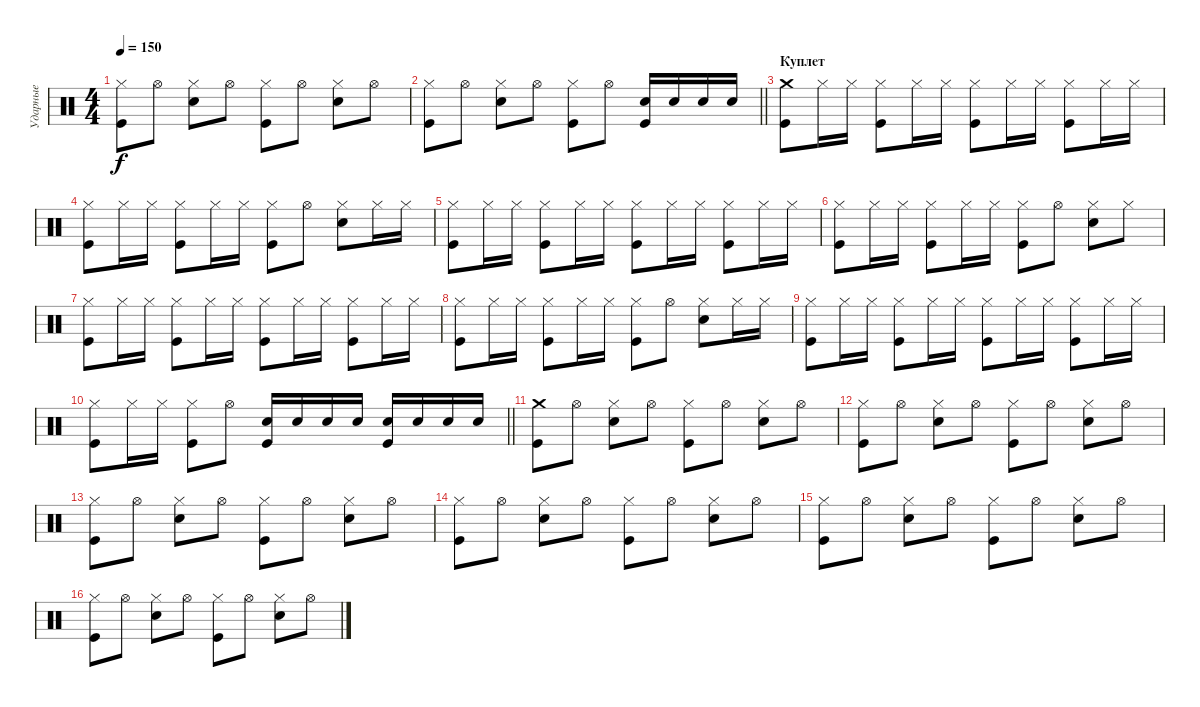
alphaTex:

\track ("Ударные" "Ударные") {instrument percussion}
\staff {score}
\articulation defaults
\ts (4 4)
\tempo 150
\clef neutral
\ks c
("Hi-Hat (closed)" "Kick (hit)").8{dy f} "Hi-Hat (open)".8 ("Hi-Hat (closed)" "Electric Snare (hit)").8 "Hi-Hat (open)".8 ("Hi-Hat (closed)" "Kick (hit)").8 "Hi-Hat (open)".8 ("Hi-Hat (closed)" "Electric Snare (hit)").8 "Hi-Hat (open)".8 |
\barLineRight lightlight
("Hi-Hat (closed)" "Kick (hit)").8 "Hi-Hat (open)".8 ("Hi-Hat (closed)" "Electric Snare (hit)").8 "Hi-Hat (open)".8 ("Hi-Hat (closed)" "Kick (hit)").8 "Hi-Hat (open)".8 ("Electric Snare (hit)" "Kick (hit)").16 "Electric Snare (hit)".16 "Electric Snare (hit)".16 "Electric Snare (hit)".16 |
\section ("" "Куплет")
("Crash medium (hit)" "Kick (hit)").8 "Hi-Hat (closed)".16 "Hi-Hat (closed)".16 ("Hi-Hat (closed)" "Kick (hit)").8 "Hi-Hat (closed)".16 "Hi-Hat (closed)".16 ("Hi-Hat (closed)" "Kick (hit)").8 "Hi-Hat (closed)".16 "Hi-Hat (closed)".16 ("Hi-Hat (closed)" "Kick (hit)").8 "Hi-Hat (closed)".16 "Hi-Hat (closed)".16 |
("Hi-Hat (closed)" "Kick (hit)").8 "Hi-Hat (closed)".16 "Hi-Hat (closed)".16 ("Hi-Hat (closed)" "Kick (hit)").8 "Hi-Hat (closed)".16 "Hi-Hat (closed)".16 ("Hi-Hat (closed)" "Kick (hit)").8 "Hi-Hat (open)".8 ("Hi-Hat (closed)" "Electric Snare (hit)").8 "Hi-Hat (closed)".16 "Hi-Hat (closed)".16 |
("Hi-Hat (closed)" "Kick (hit)").8 "Hi-Hat (closed)".16 "Hi-Hat (closed)".16 ("Hi-Hat (closed)" "Kick (hit)").8 "Hi-Hat (closed)".16 "Hi-Hat (closed)".16 ("Hi-Hat (closed)" "Kick (hit)").8 "Hi-Hat (closed)".16 "Hi-Hat (closed)".16 ("Hi-Hat (closed)" "Kick (hit)").8 "Hi-Hat (closed)".16 "Hi-Hat (closed)".16 |
("Hi-Hat (closed)" "Kick (hit)").8 "Hi-Hat (closed)".16 "Hi-Hat (closed)".16 ("Hi-Hat (closed)" "Kick (hit)").8 "Hi-Hat (closed)".16 "Hi-Hat (closed)".16 ("Hi-Hat (closed)" "Kick (hit)").8 "Hi-Hat (open)".8 ("Hi-Hat (closed)" "Electric Snare (hit)").8 "Hi-Hat (closed)".8 |
("Hi-Hat (closed)" "Kick (hit)").8 "Hi-Hat (closed)".16 "Hi-Hat (closed)".16 ("Hi-Hat (closed)" "Kick (hit)").8 "Hi-Hat (closed)".16 "Hi-Hat (closed)".16 ("Hi-Hat (closed)" "Kick (hit)").8 "Hi-Hat (closed)".16 "Hi-Hat (closed)".16 ("Hi-Hat (closed)" "Kick (hit)").8 "Hi-Hat (closed)".16 "Hi-Hat (closed)".16 |
("Hi-Hat (closed)" "Kick (hit)").8 "Hi-Hat (closed)".16 "Hi-Hat (closed)".16 ("Hi-Hat (closed)" "Kick (hit)").8 "Hi-Hat (closed)".16 "Hi-Hat (closed)".16 ("Hi-Hat (closed)" "Kick (hit)").8 "Hi-Hat (open)".8 ("Hi-Hat (closed)" "Electric Snare (hit)").8 "Hi-Hat (closed)".16 "Hi-Hat (closed)".16 |
("Hi-Hat (closed)" "Kick (hit)").8 "Hi-Hat (closed)".16 "Hi-Hat (closed)".16 ("Hi-Hat (closed)" "Kick (hit)").8 "Hi-Hat (closed)".16 "Hi-Hat (closed)".16 ("Hi-Hat (closed)" "Kick (hit)").8 "Hi-Hat (closed)".16 "Hi-Hat (closed)".16 ("Hi-Hat (closed)" "Kick (hit)").8 "Hi-Hat (closed)".16 "Hi-Hat (closed)".16 |
\barLineRight lightlight
("Hi-Hat (closed)" "Kick (hit)").8 "Hi-Hat (closed)".16 "Hi-Hat (closed)".16 ("Hi-Hat (closed)" "Kick (hit)").8 "Hi-Hat (open)".8 ("Electric Snare (hit)" "Kick (hit)").16 "Electric Snare (hit)".16 "Electric Snare (hit)".16 "Electric Snare (hit)".16 ("Electric Snare (hit)" "Kick (hit)").16 "Electric Snare (hit)".16 "Electric Snare (hit)".16 "Electric Snare (hit)".16 |
\section ("" " ")
("Crash medium (hit)" "Kick (hit)").8 "Hi-Hat (open)".8 ("Hi-Hat (closed)" "Electric Snare (hit)").8 "Hi-Hat (open)".8 ("Hi-Hat (closed)" "Kick (hit)").8 "Hi-Hat (open)".8 ("Hi-Hat (closed)" "Electric Snare (hit)").8 "Hi-Hat (open)".8 |
("Hi-Hat (closed)" "Kick (hit)").8 "Hi-Hat (open)".8 ("Hi-Hat (closed)" "Electric Snare (hit)").8 "Hi-Hat (open)".8 ("Hi-Hat (closed)" "Kick (hit)").8 "Hi-Hat (open)".8 ("Hi-Hat (closed)" "Electric Snare (hit)").8 "Hi-Hat (open)".8 |
("Hi-Hat (closed)" "Kick (hit)").8 "Hi-Hat (open)".8 ("Hi-Hat (closed)" "Electric Snare (hit)").8 "Hi-Hat (open)".8 ("Hi-Hat (closed)" "Kick (hit)").8 "Hi-Hat (open)".8 ("Hi-Hat (closed)" "Electric Snare (hit)").8 "Hi-Hat (open)".8 |
("Hi-Hat (closed)" "Kick (hit)").8 "Hi-Hat (open)".8 ("Hi-Hat (closed)" "Electric Snare (hit)").8 "Hi-Hat (open)".8 ("Hi-Hat (closed)" "Kick (hit)").8 "Hi-Hat (open)".8 ("Hi-Hat (closed)" "Electric Snare (hit)").8 "Hi-Hat (open)".8 |
("Hi-Hat (closed)" "Kick (hit)").8 "Hi-Hat (open)".8 ("Hi-Hat (closed)" "Electric Snare (hit)").8 "Hi-Hat (open)".8 ("Hi-Hat (closed)" "Kick (hit)").8 "Hi-Hat (open)".8 ("Hi-Hat (closed)" "Electric Snare (hit)").8 "Hi-Hat (open)".8 |
("Hi-Hat (closed)" "Kick (hit)").8 "Hi-Hat (open)".8 ("Hi-Hat (closed)" "Electric Snare (hit)").8 "Hi-Hat (open)".8 ("Hi-Hat (closed)" "Kick (hit)").8 "Hi-Hat (open)".8 ("Hi-Hat (closed)" "Electric Snare (hit)").8 "Hi-Hat (open)".8
